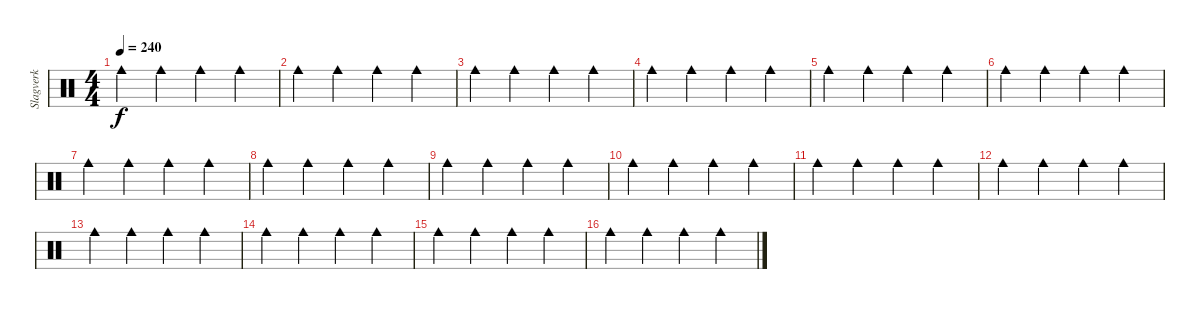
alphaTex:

\track ("Slagverk" "Slagverk") {instrument percussion}
\staff {score}
\articulation defaults
\ts (4 4)
\tempo 240
\clef neutral
\ks c "Cowbell medium (hit)".4{dy f} "Cowbell medium (hit)".4 "Cowbell medium (hit)".4 "Cowbell medium (hit)".4
|
"Cowbell medium (hit)".4 "Cowbell medium (hit)".4 "Cowbell medium (hit)".4 "Cowbell medium (hit)".4 |
"Cowbell medium (hit)".4 "Cowbell medium (hit)".4 "Cowbell medium (hit)".4 "Cowbell medium (hit)".4 |
"Cowbell medium (hit)".4 "Cowbell medium (hit)".4 "Cowbell medium (hit)".4 "Cowbell medium (hit)".4 |
"Cowbell medium (hit)".4 "Cowbell medium (hit)".4 "Cowbell medium (hit)".4 "Cowbell medium (hit)".4 |
"Cowbell medium (hit)".4 "Cowbell medium (hit)".4 "Cowbell medium (hit)".4 "Cowbell medium (hit)".4 |
"Cowbell medium (hit)".4 "Cowbell medium (hit)".4 "Cowbell medium (hit)".4 "Cowbell medium (hit)".4 |
"Cowbell medium (hit)".4 "Cowbell medium (hit)".4 "Cowbell medium (hit)".4 "Cowbell medium (hit)".4 |
"Cowbell medium (hit)".4 "Cowbell medium (hit)".4 "Cowbell medium (hit)".4 "Cowbell medium (hit)".4 |
"Cowbell medium (hit)".4 "Cowbell medium (hit)".4 "Cowbell medium (hit)".4 "Cowbell medium (hit)".4 |
"Cowbell medium (hit)".4 "Cowbell medium (hit)".4 "Cowbell medium (hit)".4 "Cowbell medium (hit)".4 |
"Cowbell medium (hit)".4 "Cowbell medium (hit)".4 "Cowbell medium (hit)".4 "Cowbell medium (hit)".4 |
"Cowbell medium (hit)".4 "Cowbell medium (hit)".4 "Cowbell medium (hit)".4 "Cowbell medium (hit)".4 |
"Cowbell medium (hit)".4 "Cowbell medium (hit)".4 "Cowbell medium (hit)".4 "Cowbell medium (hit)".4 |
"Cowbell medium (hit)".4 "Cowbell medium (hit)".4 "Cowbell medium (hit)".4 "Cowbell medium (hit)".4 |
"Cowbell medium (hit)".4 "Cowbell medium (hit)".4 "Cowbell medium (hit)".4 "Cowbell medium (hit)".4
